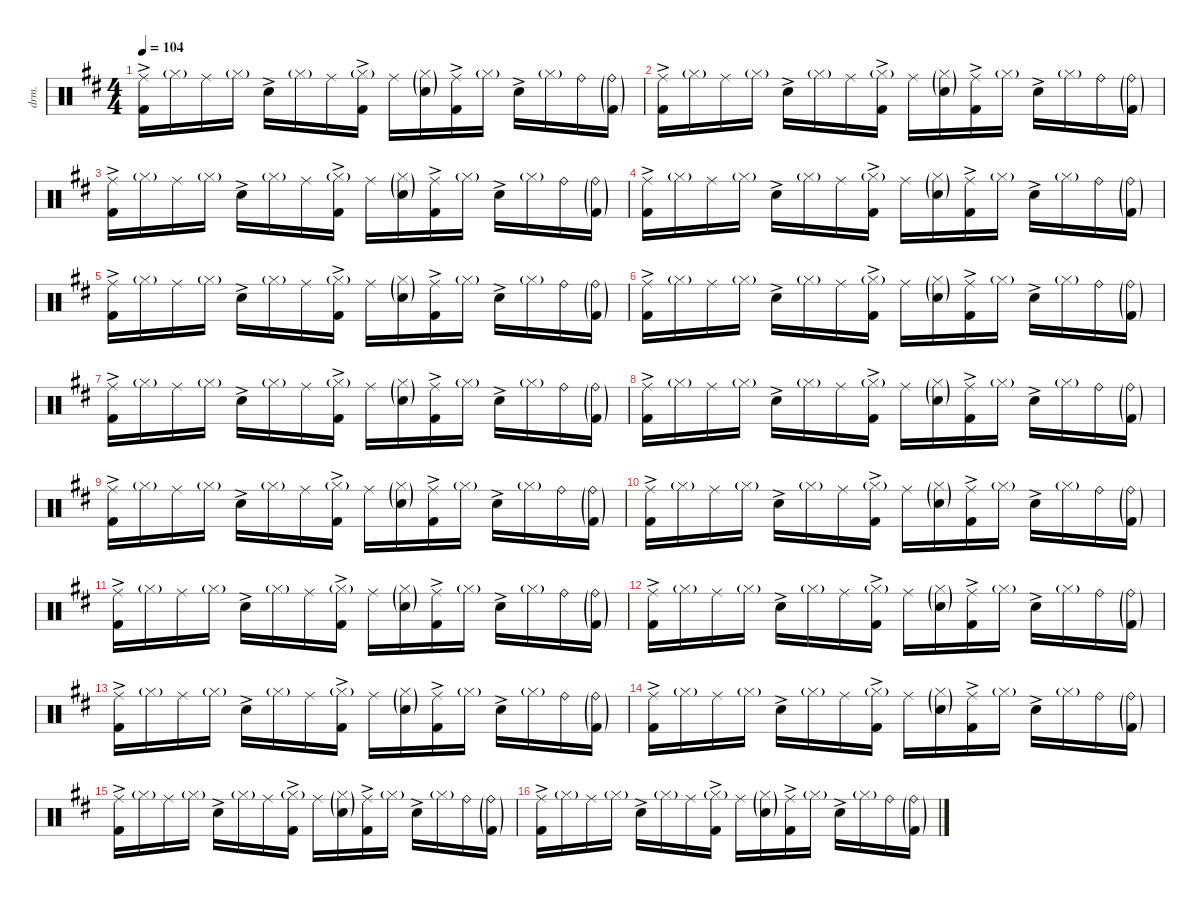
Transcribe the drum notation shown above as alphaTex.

\defaultSystemsLayout 4
\hideDynamics
\bracketExtendMode nobrackets
\otherSystemsTrackNameOrientation horizontal
\track ("Drums" "drm.") {instrument percussion}
\staff {score}
\articulation defaults
\ts (4 4)
\tempo 104
\clef neutral
\ks d
("Ride (middle)"{acc forcenatural} "Kick (hit) 2"{ac acc forcenatural}).16{dy f} "Hi-Hat (closed)"{g acc forcenatural}.16{dy mf} "Ride (middle)"{acc forcenatural}.16{dy f} "Hi-Hat (closed)"{g acc forcenatural}.16{dy mf} "Snare (hit) 2"{ac acc forcenatural}.16{dy f} "Hi-Hat (closed)"{g acc forcenatural}.16{dy mf} "Ride (middle)"{acc forcenatural}.16{dy f} ("Hi-Hat (closed)"{g acc forcenatural} "Kick (hit) 2"{ac acc forcenatural}).16{dy mf} "Ride (middle)"{acc forcenatural}.16{dy f} ("Hi-Hat (closed)"{g acc forcenatural} "Snare (hit) 2"{g acc forcenatural}).16{dy mf} ("Ride (middle)"{acc forcenatural} "Kick (hit) 2"{ac acc forcenatural}).16{dy f} "Hi-Hat (closed)"{g acc forcenatural}.16{dy mf} "Snare (hit) 2"{ac acc forcenatural}.16{dy f} "Hi-Hat (closed)"{g acc forcenatural}.16{dy mf} "Ride (bell)"{acc forcenatural}.16{dy f} ("Ride (bell)"{g acc forcenatural} "Kick (hit) 2"{g acc forcenatural}).16{dy mf} |
("Ride (middle)"{acc forcenatural} "Kick (hit) 2"{ac acc forcenatural}).16{dy f} "Hi-Hat (closed)"{g acc forcenatural}.16{dy mf} "Ride (middle)"{acc forcenatural}.16{dy f} "Hi-Hat (closed)"{g acc forcenatural}.16{dy mf} "Snare (hit) 2"{ac acc forcenatural}.16{dy f} "Hi-Hat (closed)"{g acc forcenatural}.16{dy mf} "Ride (middle)"{acc forcenatural}.16{dy f} ("Hi-Hat (closed)"{g acc forcenatural} "Kick (hit) 2"{ac acc forcenatural}).16{dy mf} "Ride (middle)"{acc forcenatural}.16{dy f} ("Hi-Hat (closed)"{g acc forcenatural} "Snare (hit) 2"{g acc forcenatural}).16{dy mf} ("Ride (middle)"{acc forcenatural} "Kick (hit) 2"{ac acc forcenatural}).16{dy f} "Hi-Hat (closed)"{g acc forcenatural}.16{dy mf} "Snare (hit) 2"{ac acc forcenatural}.16{dy f} "Hi-Hat (closed)"{g acc forcenatural}.16{dy mf} "Ride (bell)"{acc forcenatural}.16{dy f} ("Ride (bell)"{g acc forcenatural} "Kick (hit) 2"{g acc forcenatural}).16{dy mf} |
("Ride (middle)"{acc forcenatural} "Kick (hit) 2"{ac acc forcenatural}).16{dy f} "Hi-Hat (closed)"{g acc forcenatural}.16{dy mf} "Ride (middle)"{acc forcenatural}.16{dy f} "Hi-Hat (closed)"{g acc forcenatural}.16{dy mf} "Snare (hit) 2"{ac acc forcenatural}.16{dy f} "Hi-Hat (closed)"{g acc forcenatural}.16{dy mf} "Ride (middle)"{acc forcenatural}.16{dy f} ("Hi-Hat (closed)"{g acc forcenatural} "Kick (hit) 2"{ac acc forcenatural}).16{dy mf} "Ride (middle)"{acc forcenatural}.16{dy f} ("Hi-Hat (closed)"{g acc forcenatural} "Snare (hit) 2"{g acc forcenatural}).16{dy mf} ("Ride (middle)"{acc forcenatural} "Kick (hit) 2"{ac acc forcenatural}).16{dy f} "Hi-Hat (closed)"{g acc forcenatural}.16{dy mf} "Snare (hit) 2"{ac acc forcenatural}.16{dy f} "Hi-Hat (closed)"{g acc forcenatural}.16{dy mf} "Ride (bell)"{acc forcenatural}.16{dy f} ("Ride (bell)"{g acc forcenatural} "Kick (hit) 2"{g acc forcenatural}).16{dy mf} |
("Ride (middle)"{acc forcenatural} "Kick (hit) 2"{ac acc forcenatural}).16{dy f} "Hi-Hat (closed)"{g acc forcenatural}.16{dy mf} "Ride (middle)"{acc forcenatural}.16{dy f} "Hi-Hat (closed)"{g acc forcenatural}.16{dy mf} "Snare (hit) 2"{ac acc forcenatural}.16{dy f} "Hi-Hat (closed)"{g acc forcenatural}.16{dy mf} "Ride (middle)"{acc forcenatural}.16{dy f} ("Hi-Hat (closed)"{g acc forcenatural} "Kick (hit) 2"{ac acc forcenatural}).16{dy mf} "Ride (middle)"{acc forcenatural}.16{dy f} ("Hi-Hat (closed)"{g acc forcenatural} "Snare (hit) 2"{g acc forcenatural}).16{dy mf} ("Ride (middle)"{acc forcenatural} "Kick (hit) 2"{ac acc forcenatural}).16{dy f} "Hi-Hat (closed)"{g acc forcenatural}.16{dy mf} "Snare (hit) 2"{ac acc forcenatural}.16{dy f} "Hi-Hat (closed)"{g acc forcenatural}.16{dy mf} "Ride (bell)"{acc forcenatural}.16{dy f} ("Ride (bell)"{g acc forcenatural} "Kick (hit) 2"{g acc forcenatural}).16{dy mf} |
("Ride (middle)"{acc forcenatural} "Kick (hit) 2"{ac acc forcenatural}).16{dy f} "Hi-Hat (closed)"{g acc forcenatural}.16{dy mf} "Ride (middle)"{acc forcenatural}.16{dy f} "Hi-Hat (closed)"{g acc forcenatural}.16{dy mf} "Snare (hit) 2"{ac acc forcenatural}.16{dy f} "Hi-Hat (closed)"{g acc forcenatural}.16{dy mf} "Ride (middle)"{acc forcenatural}.16{dy f} ("Hi-Hat (closed)"{g acc forcenatural} "Kick (hit) 2"{ac acc forcenatural}).16{dy mf} "Ride (middle)"{acc forcenatural}.16{dy f} ("Hi-Hat (closed)"{g acc forcenatural} "Snare (hit) 2"{g acc forcenatural}).16{dy mf} ("Ride (middle)"{acc forcenatural} "Kick (hit) 2"{ac acc forcenatural}).16{dy f} "Hi-Hat (closed)"{g acc forcenatural}.16{dy mf} "Snare (hit) 2"{ac acc forcenatural}.16{dy f} "Hi-Hat (closed)"{g acc forcenatural}.16{dy mf} "Ride (bell)"{acc forcenatural}.16{dy f} ("Ride (bell)"{g acc forcenatural} "Kick (hit) 2"{g acc forcenatural}).16{dy mf} |
("Ride (middle)"{acc forcenatural} "Kick (hit) 2"{ac acc forcenatural}).16{dy f} "Hi-Hat (closed)"{g acc forcenatural}.16{dy mf} "Ride (middle)"{acc forcenatural}.16{dy f} "Hi-Hat (closed)"{g acc forcenatural}.16{dy mf} "Snare (hit) 2"{ac acc forcenatural}.16{dy f} "Hi-Hat (closed)"{g acc forcenatural}.16{dy mf} "Ride (middle)"{acc forcenatural}.16{dy f} ("Hi-Hat (closed)"{g acc forcenatural} "Kick (hit) 2"{ac acc forcenatural}).16{dy mf} "Ride (middle)"{acc forcenatural}.16{dy f} ("Hi-Hat (closed)"{g acc forcenatural} "Snare (hit) 2"{g acc forcenatural}).16{dy mf} ("Ride (middle)"{acc forcenatural} "Kick (hit) 2"{ac acc forcenatural}).16{dy f} "Hi-Hat (closed)"{g acc forcenatural}.16{dy mf} "Snare (hit) 2"{ac acc forcenatural}.16{dy f} "Hi-Hat (closed)"{g acc forcenatural}.16{dy mf} "Ride (bell)"{acc forcenatural}.16{dy f} ("Ride (bell)"{g acc forcenatural} "Kick (hit) 2"{g acc forcenatural}).16{dy mf} |
("Ride (middle)"{acc forcenatural} "Kick (hit) 2"{ac acc forcenatural}).16{dy f} "Hi-Hat (closed)"{g acc forcenatural}.16{dy mf} "Ride (middle)"{acc forcenatural}.16{dy f} "Hi-Hat (closed)"{g acc forcenatural}.16{dy mf} "Snare (hit) 2"{ac acc forcenatural}.16{dy f} "Hi-Hat (closed)"{g acc forcenatural}.16{dy mf} "Ride (middle)"{acc forcenatural}.16{dy f} ("Hi-Hat (closed)"{g acc forcenatural} "Kick (hit) 2"{ac acc forcenatural}).16{dy mf} "Ride (middle)"{acc forcenatural}.16{dy f} ("Hi-Hat (closed)"{g acc forcenatural} "Snare (hit) 2"{g acc forcenatural}).16{dy mf} ("Ride (middle)"{acc forcenatural} "Kick (hit) 2"{ac acc forcenatural}).16{dy f} "Hi-Hat (closed)"{g acc forcenatural}.16{dy mf} "Snare (hit) 2"{ac acc forcenatural}.16{dy f} "Hi-Hat (closed)"{g acc forcenatural}.16{dy mf} "Ride (bell)"{acc forcenatural}.16{dy f} ("Ride (bell)"{g acc forcenatural} "Kick (hit) 2"{g acc forcenatural}).16{dy mf} |
("Ride (middle)"{acc forcenatural} "Kick (hit) 2"{ac acc forcenatural}).16{dy f} "Hi-Hat (closed)"{g acc forcenatural}.16{dy mf} "Ride (middle)"{acc forcenatural}.16{dy f} "Hi-Hat (closed)"{g acc forcenatural}.16{dy mf} "Snare (hit) 2"{ac acc forcenatural}.16{dy f} "Hi-Hat (closed)"{g acc forcenatural}.16{dy mf} "Ride (middle)"{acc forcenatural}.16{dy f} ("Hi-Hat (closed)"{g acc forcenatural} "Kick (hit) 2"{ac acc forcenatural}).16{dy mf} "Ride (middle)"{acc forcenatural}.16{dy f} ("Hi-Hat (closed)"{g acc forcenatural} "Snare (hit) 2"{g acc forcenatural}).16{dy mf} ("Ride (middle)"{acc forcenatural} "Kick (hit) 2"{ac acc forcenatural}).16{dy f} "Hi-Hat (closed)"{g acc forcenatural}.16{dy mf} "Snare (hit) 2"{ac acc forcenatural}.16{dy f} "Hi-Hat (closed)"{g acc forcenatural}.16{dy mf} "Ride (bell)"{acc forcenatural}.16{dy f} ("Ride (bell)"{g acc forcenatural} "Kick (hit) 2"{g acc forcenatural}).16{dy mf} |
("Ride (middle)"{acc forcenatural} "Kick (hit) 2"{ac acc forcenatural}).16{dy f} "Hi-Hat (closed)"{g acc forcenatural}.16{dy mf} "Ride (middle)"{acc forcenatural}.16{dy f} "Hi-Hat (closed)"{g acc forcenatural}.16{dy mf} "Snare (hit) 2"{ac acc forcenatural}.16{dy f} "Hi-Hat (closed)"{g acc forcenatural}.16{dy mf} "Ride (middle)"{acc forcenatural}.16{dy f} ("Hi-Hat (closed)"{g acc forcenatural} "Kick (hit) 2"{ac acc forcenatural}).16{dy mf} "Ride (middle)"{acc forcenatural}.16{dy f} ("Hi-Hat (closed)"{g acc forcenatural} "Snare (hit) 2"{g acc forcenatural}).16{dy mf} ("Ride (middle)"{acc forcenatural} "Kick (hit) 2"{ac acc forcenatural}).16{dy f} "Hi-Hat (closed)"{g acc forcenatural}.16{dy mf} "Snare (hit) 2"{ac acc forcenatural}.16{dy f} "Hi-Hat (closed)"{g acc forcenatural}.16{dy mf} "Ride (bell)"{acc forcenatural}.16{dy f} ("Ride (bell)"{g acc forcenatural} "Kick (hit) 2"{g acc forcenatural}).16{dy mf} |
("Ride (middle)"{acc forcenatural} "Kick (hit) 2"{ac acc forcenatural}).16{dy f} "Hi-Hat (closed)"{g acc forcenatural}.16{dy mf} "Ride (middle)"{acc forcenatural}.16{dy f} "Hi-Hat (closed)"{g acc forcenatural}.16{dy mf} "Snare (hit) 2"{ac acc forcenatural}.16{dy f} "Hi-Hat (closed)"{g acc forcenatural}.16{dy mf} "Ride (middle)"{acc forcenatural}.16{dy f} ("Hi-Hat (closed)"{g acc forcenatural} "Kick (hit) 2"{ac acc forcenatural}).16{dy mf} "Ride (middle)"{acc forcenatural}.16{dy f} ("Hi-Hat (closed)"{g acc forcenatural} "Snare (hit) 2"{g acc forcenatural}).16{dy mf} ("Ride (middle)"{acc forcenatural} "Kick (hit) 2"{ac acc forcenatural}).16{dy f} "Hi-Hat (closed)"{g acc forcenatural}.16{dy mf} "Snare (hit) 2"{ac acc forcenatural}.16{dy f} "Hi-Hat (closed)"{g acc forcenatural}.16{dy mf} "Ride (bell)"{acc forcenatural}.16{dy f} ("Ride (bell)"{g acc forcenatural} "Kick (hit) 2"{g acc forcenatural}).16{dy mf} |
("Ride (middle)"{acc forcenatural} "Kick (hit) 2"{ac acc forcenatural}).16{dy f} "Hi-Hat (closed)"{g acc forcenatural}.16{dy mf} "Ride (middle)"{acc forcenatural}.16{dy f} "Hi-Hat (closed)"{g acc forcenatural}.16{dy mf} "Snare (hit) 2"{ac acc forcenatural}.16{dy f} "Hi-Hat (closed)"{g acc forcenatural}.16{dy mf} "Ride (middle)"{acc forcenatural}.16{dy f} ("Hi-Hat (closed)"{g acc forcenatural} "Kick (hit) 2"{ac acc forcenatural}).16{dy mf} "Ride (middle)"{acc forcenatural}.16{dy f} ("Hi-Hat (closed)"{g acc forcenatural} "Snare (hit) 2"{g acc forcenatural}).16{dy mf} ("Ride (middle)"{acc forcenatural} "Kick (hit) 2"{ac acc forcenatural}).16{dy f} "Hi-Hat (closed)"{g acc forcenatural}.16{dy mf} "Snare (hit) 2"{ac acc forcenatural}.16{dy f} "Hi-Hat (closed)"{g acc forcenatural}.16{dy mf} "Ride (bell)"{acc forcenatural}.16{dy f} ("Ride (bell)"{g acc forcenatural} "Kick (hit) 2"{g acc forcenatural}).16{dy mf} |
("Ride (middle)"{acc forcenatural} "Kick (hit) 2"{ac acc forcenatural}).16{dy f} "Hi-Hat (closed)"{g acc forcenatural}.16{dy mf} "Ride (middle)"{acc forcenatural}.16{dy f} "Hi-Hat (closed)"{g acc forcenatural}.16{dy mf} "Snare (hit) 2"{ac acc forcenatural}.16{dy f} "Hi-Hat (closed)"{g acc forcenatural}.16{dy mf} "Ride (middle)"{acc forcenatural}.16{dy f} ("Hi-Hat (closed)"{g acc forcenatural} "Kick (hit) 2"{ac acc forcenatural}).16{dy mf} "Ride (middle)"{acc forcenatural}.16{dy f} ("Hi-Hat (closed)"{g acc forcenatural} "Snare (hit) 2"{g acc forcenatural}).16{dy mf} ("Ride (middle)"{acc forcenatural} "Kick (hit) 2"{ac acc forcenatural}).16{dy f} "Hi-Hat (closed)"{g acc forcenatural}.16{dy mf} "Snare (hit) 2"{ac acc forcenatural}.16{dy f} "Hi-Hat (closed)"{g acc forcenatural}.16{dy mf} "Ride (bell)"{acc forcenatural}.16{dy f} ("Ride (bell)"{g acc forcenatural} "Kick (hit) 2"{g acc forcenatural}).16{dy mf} |
("Ride (middle)"{acc forcenatural} "Kick (hit) 2"{ac acc forcenatural}).16{dy f} "Hi-Hat (closed)"{g acc forcenatural}.16{dy mf} "Ride (middle)"{acc forcenatural}.16{dy f} "Hi-Hat (closed)"{g acc forcenatural}.16{dy mf} "Snare (hit) 2"{ac acc forcenatural}.16{dy f} "Hi-Hat (closed)"{g acc forcenatural}.16{dy mf} "Ride (middle)"{acc forcenatural}.16{dy f} ("Hi-Hat (closed)"{g acc forcenatural} "Kick (hit) 2"{ac acc forcenatural}).16{dy mf} "Ride (middle)"{acc forcenatural}.16{dy f} ("Hi-Hat (closed)"{g acc forcenatural} "Snare (hit) 2"{g acc forcenatural}).16{dy mf} ("Ride (middle)"{acc forcenatural} "Kick (hit) 2"{ac acc forcenatural}).16{dy f} "Hi-Hat (closed)"{g acc forcenatural}.16{dy mf} "Snare (hit) 2"{ac acc forcenatural}.16{dy f} "Hi-Hat (closed)"{g acc forcenatural}.16{dy mf} "Ride (bell)"{acc forcenatural}.16{dy f} ("Ride (bell)"{g acc forcenatural} "Kick (hit) 2"{g acc forcenatural}).16{dy mf} |
("Ride (middle)"{acc forcenatural} "Kick (hit) 2"{ac acc forcenatural}).16{dy f} "Hi-Hat (closed)"{g acc forcenatural}.16{dy mf} "Ride (middle)"{acc forcenatural}.16{dy f} "Hi-Hat (closed)"{g acc forcenatural}.16{dy mf} "Snare (hit) 2"{ac acc forcenatural}.16{dy f} "Hi-Hat (closed)"{g acc forcenatural}.16{dy mf} "Ride (middle)"{acc forcenatural}.16{dy f} ("Hi-Hat (closed)"{g acc forcenatural} "Kick (hit) 2"{ac acc forcenatural}).16{dy mf} "Ride (middle)"{acc forcenatural}.16{dy f} ("Hi-Hat (closed)"{g acc forcenatural} "Snare (hit) 2"{g acc forcenatural}).16{dy mf} ("Ride (middle)"{acc forcenatural} "Kick (hit) 2"{ac acc forcenatural}).16{dy f} "Hi-Hat (closed)"{g acc forcenatural}.16{dy mf} "Snare (hit) 2"{ac acc forcenatural}.16{dy f} "Hi-Hat (closed)"{g acc forcenatural}.16{dy mf} "Ride (bell)"{acc forcenatural}.16{dy f} ("Ride (bell)"{g acc forcenatural} "Kick (hit) 2"{g acc forcenatural}).16{dy mf} |
("Ride (middle)"{acc forcenatural} "Kick (hit) 2"{ac acc forcenatural}).16{dy f} "Hi-Hat (closed)"{g acc forcenatural}.16{dy mf} "Ride (middle)"{acc forcenatural}.16{dy f} "Hi-Hat (closed)"{g acc forcenatural}.16{dy mf} "Snare (hit) 2"{ac acc forcenatural}.16{dy f} "Hi-Hat (closed)"{g acc forcenatural}.16{dy mf} "Ride (middle)"{acc forcenatural}.16{dy f} ("Hi-Hat (closed)"{g acc forcenatural} "Kick (hit) 2"{ac acc forcenatural}).16{dy mf} "Ride (middle)"{acc forcenatural}.16{dy f} ("Hi-Hat (closed)"{g acc forcenatural} "Snare (hit) 2"{g acc forcenatural}).16{dy mf} ("Ride (middle)"{acc forcenatural} "Kick (hit) 2"{ac acc forcenatural}).16{dy f} "Hi-Hat (closed)"{g acc forcenatural}.16{dy mf} "Snare (hit) 2"{ac acc forcenatural}.16{dy f} "Hi-Hat (closed)"{g acc forcenatural}.16{dy mf} "Ride (bell)"{acc forcenatural}.16{dy f} ("Ride (bell)"{g acc forcenatural} "Kick (hit) 2"{g acc forcenatural}).16{dy mf} |
("Ride (middle)"{acc forcenatural} "Kick (hit) 2"{ac acc forcenatural}).16{dy f} "Hi-Hat (closed)"{g acc forcenatural}.16{dy mf} "Ride (middle)"{acc forcenatural}.16{dy f} "Hi-Hat (closed)"{g acc forcenatural}.16{dy mf} "Snare (hit) 2"{ac acc forcenatural}.16{dy f} "Hi-Hat (closed)"{g acc forcenatural}.16{dy mf} "Ride (middle)"{acc forcenatural}.16{dy f} ("Hi-Hat (closed)"{g acc forcenatural} "Kick (hit) 2"{ac acc forcenatural}).16{dy mf} "Ride (middle)"{acc forcenatural}.16{dy f} ("Hi-Hat (closed)"{g acc forcenatural} "Snare (hit) 2"{g acc forcenatural}).16{dy mf} ("Ride (middle)"{acc forcenatural} "Kick (hit) 2"{ac acc forcenatural}).16{dy f} "Hi-Hat (closed)"{g acc forcenatural}.16{dy mf} "Snare (hit) 2"{ac acc forcenatural}.16{dy f} "Hi-Hat (closed)"{g acc forcenatural}.16{dy mf} "Ride (bell)"{acc forcenatural}.16{dy f} ("Ride (bell)"{g acc forcenatural} "Kick (hit) 2"{g acc forcenatural}).16{dy mf}
